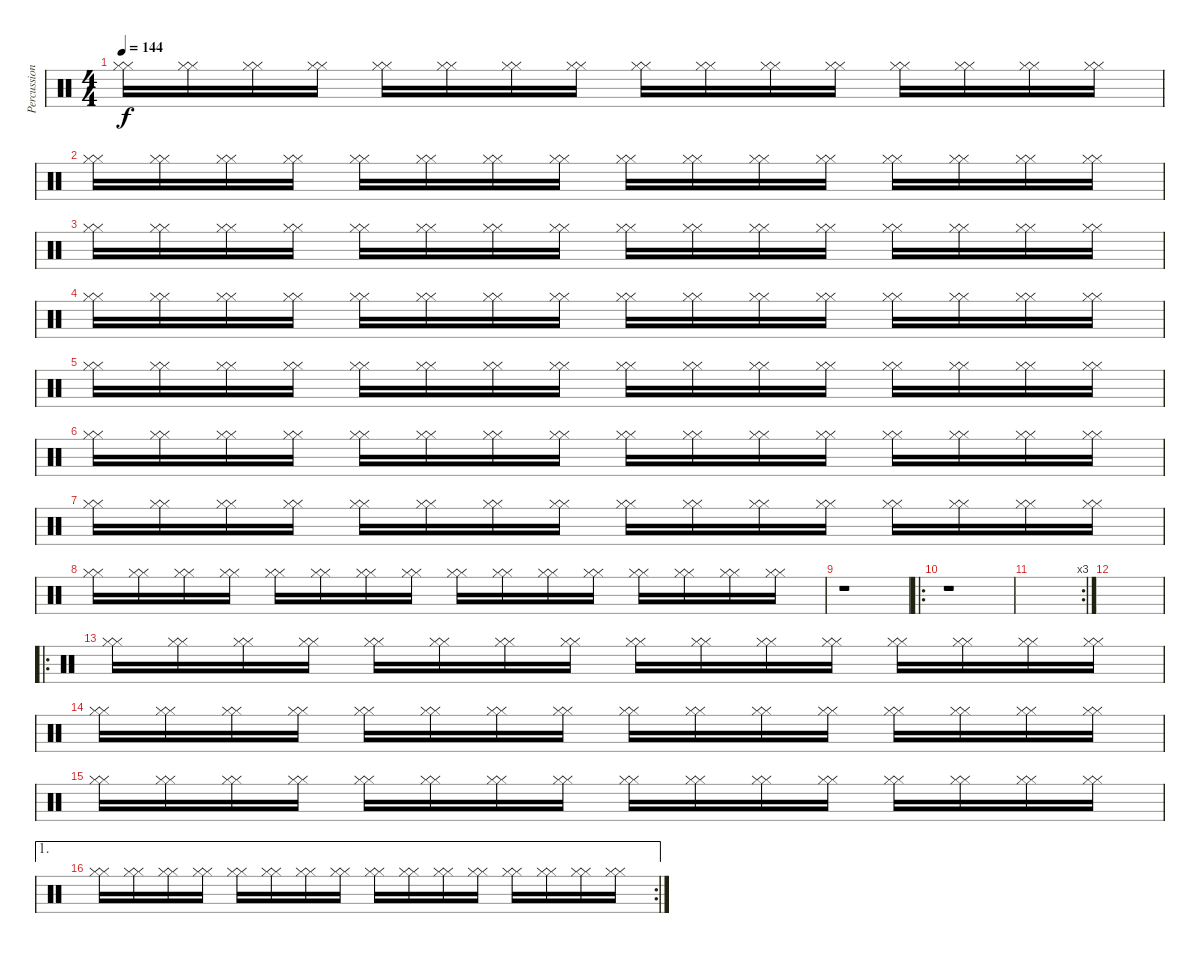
\track ("Percussion 3" "Percussion") {instrument percussion}
\staff {score}
\articulation defaults
\ts (4 4)
\tempo 144
\clef neutral
\ks c
("Hi-Hat (closed)" "Hi-Hat (closed)").16{dy f} ("Hi-Hat (closed)" "Hi-Hat (closed)").16 ("Hi-Hat (closed)" "Hi-Hat (closed)").16 ("Hi-Hat (closed)" "Hi-Hat (closed)").16 ("Hi-Hat (closed)" "Hi-Hat (closed)").16 ("Hi-Hat (closed)" "Hi-Hat (closed)").16 ("Hi-Hat (closed)" "Hi-Hat (closed)").16 ("Hi-Hat (closed)" "Hi-Hat (closed)").16 ("Hi-Hat (closed)" "Hi-Hat (closed)").16 ("Hi-Hat (closed)" "Hi-Hat (closed)").16 ("Hi-Hat (closed)" "Hi-Hat (closed)").16 ("Hi-Hat (closed)" "Hi-Hat (closed)").16 ("Hi-Hat (closed)" "Hi-Hat (closed)").16 ("Hi-Hat (closed)" "Hi-Hat (closed)").16 ("Hi-Hat (closed)" "Hi-Hat (closed)").16 ("Hi-Hat (closed)" "Hi-Hat (closed)").16 |
("Hi-Hat (closed)" "Hi-Hat (closed)").16 ("Hi-Hat (closed)" "Hi-Hat (closed)").16 ("Hi-Hat (closed)" "Hi-Hat (closed)").16 ("Hi-Hat (closed)" "Hi-Hat (closed)").16 ("Hi-Hat (closed)" "Hi-Hat (closed)").16 ("Hi-Hat (closed)" "Hi-Hat (closed)").16 ("Hi-Hat (closed)" "Hi-Hat (closed)").16 ("Hi-Hat (closed)" "Hi-Hat (closed)").16 ("Hi-Hat (closed)" "Hi-Hat (closed)").16 ("Hi-Hat (closed)" "Hi-Hat (closed)").16 ("Hi-Hat (closed)" "Hi-Hat (closed)").16 ("Hi-Hat (closed)" "Hi-Hat (closed)").16 ("Hi-Hat (closed)" "Hi-Hat (closed)").16 ("Hi-Hat (closed)" "Hi-Hat (closed)").16 ("Hi-Hat (closed)" "Hi-Hat (closed)").16 ("Hi-Hat (closed)" "Hi-Hat (closed)").16 |
("Hi-Hat (closed)" "Hi-Hat (closed)").16 ("Hi-Hat (closed)" "Hi-Hat (closed)").16 ("Hi-Hat (closed)" "Hi-Hat (closed)").16 ("Hi-Hat (closed)" "Hi-Hat (closed)").16 ("Hi-Hat (closed)" "Hi-Hat (closed)").16 ("Hi-Hat (closed)" "Hi-Hat (closed)").16 ("Hi-Hat (closed)" "Hi-Hat (closed)").16 ("Hi-Hat (closed)" "Hi-Hat (closed)").16 ("Hi-Hat (closed)" "Hi-Hat (closed)").16 ("Hi-Hat (closed)" "Hi-Hat (closed)").16 ("Hi-Hat (closed)" "Hi-Hat (closed)").16 ("Hi-Hat (closed)" "Hi-Hat (closed)").16 ("Hi-Hat (closed)" "Hi-Hat (closed)").16 ("Hi-Hat (closed)" "Hi-Hat (closed)").16 ("Hi-Hat (closed)" "Hi-Hat (closed)").16 ("Hi-Hat (closed)" "Hi-Hat (closed)").16 |
("Hi-Hat (closed)" "Hi-Hat (closed)").16 ("Hi-Hat (closed)" "Hi-Hat (closed)").16 ("Hi-Hat (closed)" "Hi-Hat (closed)").16 ("Hi-Hat (closed)" "Hi-Hat (closed)").16 ("Hi-Hat (closed)" "Hi-Hat (closed)").16 ("Hi-Hat (closed)" "Hi-Hat (closed)").16 ("Hi-Hat (closed)" "Hi-Hat (closed)").16 ("Hi-Hat (closed)" "Hi-Hat (closed)").16 ("Hi-Hat (closed)" "Hi-Hat (closed)").16 ("Hi-Hat (closed)" "Hi-Hat (closed)").16 ("Hi-Hat (closed)" "Hi-Hat (closed)").16 ("Hi-Hat (closed)" "Hi-Hat (closed)").16 ("Hi-Hat (closed)" "Hi-Hat (closed)").16 ("Hi-Hat (closed)" "Hi-Hat (closed)").16 ("Hi-Hat (closed)" "Hi-Hat (closed)").16 ("Hi-Hat (closed)" "Hi-Hat (closed)").16 |
("Hi-Hat (closed)" "Hi-Hat (closed)").16 ("Hi-Hat (closed)" "Hi-Hat (closed)").16 ("Hi-Hat (closed)" "Hi-Hat (closed)").16 ("Hi-Hat (closed)" "Hi-Hat (closed)").16 ("Hi-Hat (closed)" "Hi-Hat (closed)").16 ("Hi-Hat (closed)" "Hi-Hat (closed)").16 ("Hi-Hat (closed)" "Hi-Hat (closed)").16 ("Hi-Hat (closed)" "Hi-Hat (closed)").16 ("Hi-Hat (closed)" "Hi-Hat (closed)").16 ("Hi-Hat (closed)" "Hi-Hat (closed)").16 ("Hi-Hat (closed)" "Hi-Hat (closed)").16 ("Hi-Hat (closed)" "Hi-Hat (closed)").16 ("Hi-Hat (closed)" "Hi-Hat (closed)").16 ("Hi-Hat (closed)" "Hi-Hat (closed)").16 ("Hi-Hat (closed)" "Hi-Hat (closed)").16 ("Hi-Hat (closed)" "Hi-Hat (closed)").16 |
("Hi-Hat (closed)" "Hi-Hat (closed)").16 ("Hi-Hat (closed)" "Hi-Hat (closed)").16 ("Hi-Hat (closed)" "Hi-Hat (closed)").16 ("Hi-Hat (closed)" "Hi-Hat (closed)").16 ("Hi-Hat (closed)" "Hi-Hat (closed)").16 ("Hi-Hat (closed)" "Hi-Hat (closed)").16 ("Hi-Hat (closed)" "Hi-Hat (closed)").16 ("Hi-Hat (closed)" "Hi-Hat (closed)").16 ("Hi-Hat (closed)" "Hi-Hat (closed)").16 ("Hi-Hat (closed)" "Hi-Hat (closed)").16 ("Hi-Hat (closed)" "Hi-Hat (closed)").16 ("Hi-Hat (closed)" "Hi-Hat (closed)").16 ("Hi-Hat (closed)" "Hi-Hat (closed)").16 ("Hi-Hat (closed)" "Hi-Hat (closed)").16 ("Hi-Hat (closed)" "Hi-Hat (closed)").16 ("Hi-Hat (closed)" "Hi-Hat (closed)").16 |
("Hi-Hat (closed)" "Hi-Hat (closed)").16 ("Hi-Hat (closed)" "Hi-Hat (closed)").16 ("Hi-Hat (closed)" "Hi-Hat (closed)").16 ("Hi-Hat (closed)" "Hi-Hat (closed)").16 ("Hi-Hat (closed)" "Hi-Hat (closed)").16 ("Hi-Hat (closed)" "Hi-Hat (closed)").16 ("Hi-Hat (closed)" "Hi-Hat (closed)").16 ("Hi-Hat (closed)" "Hi-Hat (closed)").16 ("Hi-Hat (closed)" "Hi-Hat (closed)").16 ("Hi-Hat (closed)" "Hi-Hat (closed)").16 ("Hi-Hat (closed)" "Hi-Hat (closed)").16 ("Hi-Hat (closed)" "Hi-Hat (closed)").16 ("Hi-Hat (closed)" "Hi-Hat (closed)").16 ("Hi-Hat (closed)" "Hi-Hat (closed)").16 ("Hi-Hat (closed)" "Hi-Hat (closed)").16 ("Hi-Hat (closed)" "Hi-Hat (closed)").16 |
("Hi-Hat (closed)" "Hi-Hat (closed)").16 ("Hi-Hat (closed)" "Hi-Hat (closed)").16 ("Hi-Hat (closed)" "Hi-Hat (closed)").16 ("Hi-Hat (closed)" "Hi-Hat (closed)").16 ("Hi-Hat (closed)" "Hi-Hat (closed)").16 ("Hi-Hat (closed)" "Hi-Hat (closed)").16 ("Hi-Hat (closed)" "Hi-Hat (closed)").16 ("Hi-Hat (closed)" "Hi-Hat (closed)").16 ("Hi-Hat (closed)" "Hi-Hat (closed)").16 ("Hi-Hat (closed)" "Hi-Hat (closed)").16 ("Hi-Hat (closed)" "Hi-Hat (closed)").16 ("Hi-Hat (closed)" "Hi-Hat (closed)").16 ("Hi-Hat (closed)" "Hi-Hat (closed)").16 ("Hi-Hat (closed)" "Hi-Hat (closed)").16 ("Hi-Hat (closed)" "Hi-Hat (closed)").16 ("Hi-Hat (closed)" "Hi-Hat (closed)").16 |
r.1 |
\ro
r.1 |
\rc 3
|
|
\ro
("Hi-Hat (closed)" "Hi-Hat (closed)").16 ("Hi-Hat (closed)" "Hi-Hat (closed)").16 ("Hi-Hat (closed)" "Hi-Hat (closed)").16 ("Hi-Hat (closed)" "Hi-Hat (closed)").16 ("Hi-Hat (closed)" "Hi-Hat (closed)").16 ("Hi-Hat (closed)" "Hi-Hat (closed)").16 ("Hi-Hat (closed)" "Hi-Hat (closed)").16 ("Hi-Hat (closed)" "Hi-Hat (closed)").16 ("Hi-Hat (closed)" "Hi-Hat (closed)").16 ("Hi-Hat (closed)" "Hi-Hat (closed)").16 ("Hi-Hat (closed)" "Hi-Hat (closed)").16 ("Hi-Hat (closed)" "Hi-Hat (closed)").16 ("Hi-Hat (closed)" "Hi-Hat (closed)").16 ("Hi-Hat (closed)" "Hi-Hat (closed)").16 ("Hi-Hat (closed)" "Hi-Hat (closed)").16 ("Hi-Hat (closed)" "Hi-Hat (closed)").16 |
("Hi-Hat (closed)" "Hi-Hat (closed)").16 ("Hi-Hat (closed)" "Hi-Hat (closed)").16 ("Hi-Hat (closed)" "Hi-Hat (closed)").16 ("Hi-Hat (closed)" "Hi-Hat (closed)").16 ("Hi-Hat (closed)" "Hi-Hat (closed)").16 ("Hi-Hat (closed)" "Hi-Hat (closed)").16 ("Hi-Hat (closed)" "Hi-Hat (closed)").16 ("Hi-Hat (closed)" "Hi-Hat (closed)").16 ("Hi-Hat (closed)" "Hi-Hat (closed)").16 ("Hi-Hat (closed)" "Hi-Hat (closed)").16 ("Hi-Hat (closed)" "Hi-Hat (closed)").16 ("Hi-Hat (closed)" "Hi-Hat (closed)").16 ("Hi-Hat (closed)" "Hi-Hat (closed)").16 ("Hi-Hat (closed)" "Hi-Hat (closed)").16 ("Hi-Hat (closed)" "Hi-Hat (closed)").16 ("Hi-Hat (closed)" "Hi-Hat (closed)").16 |
("Hi-Hat (closed)" "Hi-Hat (closed)").16 ("Hi-Hat (closed)" "Hi-Hat (closed)").16 ("Hi-Hat (closed)" "Hi-Hat (closed)").16 ("Hi-Hat (closed)" "Hi-Hat (closed)").16 ("Hi-Hat (closed)" "Hi-Hat (closed)").16 ("Hi-Hat (closed)" "Hi-Hat (closed)").16 ("Hi-Hat (closed)" "Hi-Hat (closed)").16 ("Hi-Hat (closed)" "Hi-Hat (closed)").16 ("Hi-Hat (closed)" "Hi-Hat (closed)").16 ("Hi-Hat (closed)" "Hi-Hat (closed)").16 ("Hi-Hat (closed)" "Hi-Hat (closed)").16 ("Hi-Hat (closed)" "Hi-Hat (closed)").16 ("Hi-Hat (closed)" "Hi-Hat (closed)").16 ("Hi-Hat (closed)" "Hi-Hat (closed)").16 ("Hi-Hat (closed)" "Hi-Hat (closed)").16 ("Hi-Hat (closed)" "Hi-Hat (closed)").16 |
\ae 1
\rc 2
("Hi-Hat (closed)" "Hi-Hat (closed)").16 ("Hi-Hat (closed)" "Hi-Hat (closed)").16 ("Hi-Hat (closed)" "Hi-Hat (closed)").16 ("Hi-Hat (closed)" "Hi-Hat (closed)").16 ("Hi-Hat (closed)" "Hi-Hat (closed)").16 ("Hi-Hat (closed)" "Hi-Hat (closed)").16 ("Hi-Hat (closed)" "Hi-Hat (closed)").16 ("Hi-Hat (closed)" "Hi-Hat (closed)").16 ("Hi-Hat (closed)" "Hi-Hat (closed)").16 ("Hi-Hat (closed)" "Hi-Hat (closed)").16 ("Hi-Hat (closed)" "Hi-Hat (closed)").16 ("Hi-Hat (closed)" "Hi-Hat (closed)").16 ("Hi-Hat (closed)" "Hi-Hat (closed)").16 ("Hi-Hat (closed)" "Hi-Hat (closed)").16 ("Hi-Hat (closed)" "Hi-Hat (closed)").16 ("Hi-Hat (closed)" "Hi-Hat (closed)").16
